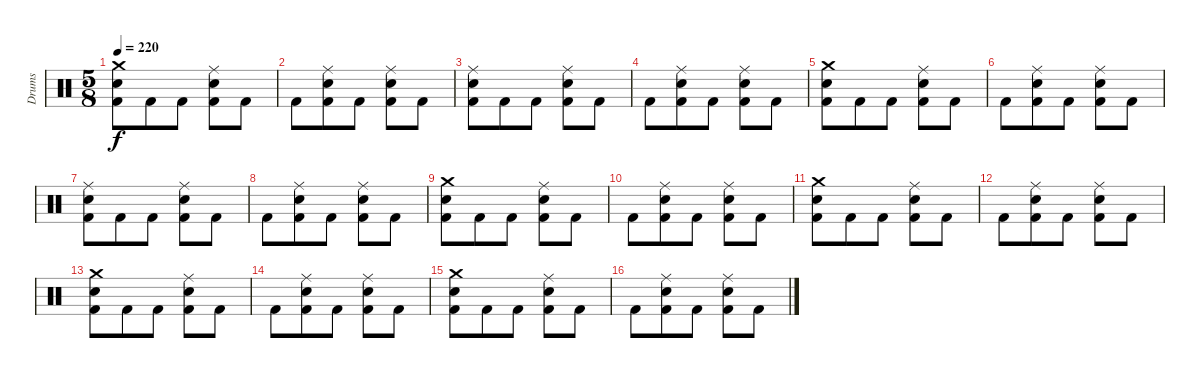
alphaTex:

\track ("Drums" "Drums") {instrument percussion}
\staff {score}
\articulation defaults
\ts (5 8)
\tempo 220
\clef neutral
\ks c
("Crash medium (hit)" "Electric Snare (hit)" "Kick (hit) 2").8{dy f} "Kick (hit) 2".8 "Kick (hit) 2".8 ("Ride (middle)" "Electric Snare (hit)" "Kick (hit) 2").8 "Kick (hit) 2".8 |
"Kick (hit) 2".8 ("Ride (middle)" "Electric Snare (hit)" "Kick (hit) 2").8 "Kick (hit) 2".8 ("Ride (middle)" "Electric Snare (hit)" "Kick (hit) 2").8 "Kick (hit) 2".8 |
("Ride (middle)" "Electric Snare (hit)" "Kick (hit) 2").8 "Kick (hit) 2".8 "Kick (hit) 2".8 ("Ride (middle)" "Electric Snare (hit)" "Kick (hit) 2").8 "Kick (hit) 2".8 |
"Kick (hit) 2".8 ("Ride (middle)" "Electric Snare (hit)" "Kick (hit) 2").8 "Kick (hit) 2".8 ("Ride (middle)" "Electric Snare (hit)" "Kick (hit) 2").8 "Kick (hit) 2".8 |
("Crash medium (hit)" "Electric Snare (hit)" "Kick (hit) 2").8 "Kick (hit) 2".8 "Kick (hit) 2".8 ("Ride (middle)" "Electric Snare (hit)" "Kick (hit) 2").8 "Kick (hit) 2".8 |
"Kick (hit) 2".8 ("Ride (middle)" "Electric Snare (hit)" "Kick (hit) 2").8 "Kick (hit) 2".8 ("Ride (middle)" "Electric Snare (hit)" "Kick (hit) 2").8 "Kick (hit) 2".8 |
("Ride (middle)" "Electric Snare (hit)" "Kick (hit) 2").8 "Kick (hit) 2".8 "Kick (hit) 2".8 ("Ride (middle)" "Electric Snare (hit)" "Kick (hit) 2").8 "Kick (hit) 2".8 |
"Kick (hit) 2".8 ("Ride (middle)" "Electric Snare (hit)" "Kick (hit) 2").8 "Kick (hit) 2".8 ("Ride (middle)" "Electric Snare (hit)" "Kick (hit) 2").8 "Kick (hit) 2".8 |
("Crash medium (hit)" "Electric Snare (hit)" "Kick (hit) 2").8 "Kick (hit) 2".8 "Kick (hit) 2".8 ("Ride (middle)" "Electric Snare (hit)" "Kick (hit) 2").8 "Kick (hit) 2".8 |
"Kick (hit) 2".8 ("Ride (middle)" "Electric Snare (hit)" "Kick (hit) 2").8 "Kick (hit) 2".8 ("Ride (middle)" "Electric Snare (hit)" "Kick (hit) 2").8 "Kick (hit) 2".8 |
("Crash medium (hit)" "Electric Snare (hit)" "Kick (hit) 2").8 "Kick (hit) 2".8 "Kick (hit) 2".8 ("Ride (middle)" "Electric Snare (hit)" "Kick (hit) 2").8 "Kick (hit) 2".8 |
"Kick (hit) 2".8 ("Ride (middle)" "Electric Snare (hit)" "Kick (hit) 2").8 "Kick (hit) 2".8 ("Ride (middle)" "Electric Snare (hit)" "Kick (hit) 2").8 "Kick (hit) 2".8 |
("Crash medium (hit)" "Electric Snare (hit)" "Kick (hit) 2").8 "Kick (hit) 2".8 "Kick (hit) 2".8 ("Ride (middle)" "Electric Snare (hit)" "Kick (hit) 2").8 "Kick (hit) 2".8 |
"Kick (hit) 2".8 ("Ride (middle)" "Electric Snare (hit)" "Kick (hit) 2").8 "Kick (hit) 2".8 ("Ride (middle)" "Electric Snare (hit)" "Kick (hit) 2").8 "Kick (hit) 2".8 |
("Crash medium (hit)" "Electric Snare (hit)" "Kick (hit) 2").8 "Kick (hit) 2".8 "Kick (hit) 2".8 ("Ride (middle)" "Electric Snare (hit)" "Kick (hit) 2").8 "Kick (hit) 2".8 |
"Kick (hit) 2".8 ("Ride (middle)" "Electric Snare (hit)" "Kick (hit) 2").8 "Kick (hit) 2".8 ("Ride (middle)" "Electric Snare (hit)" "Kick (hit) 2").8 "Kick (hit) 2".8
